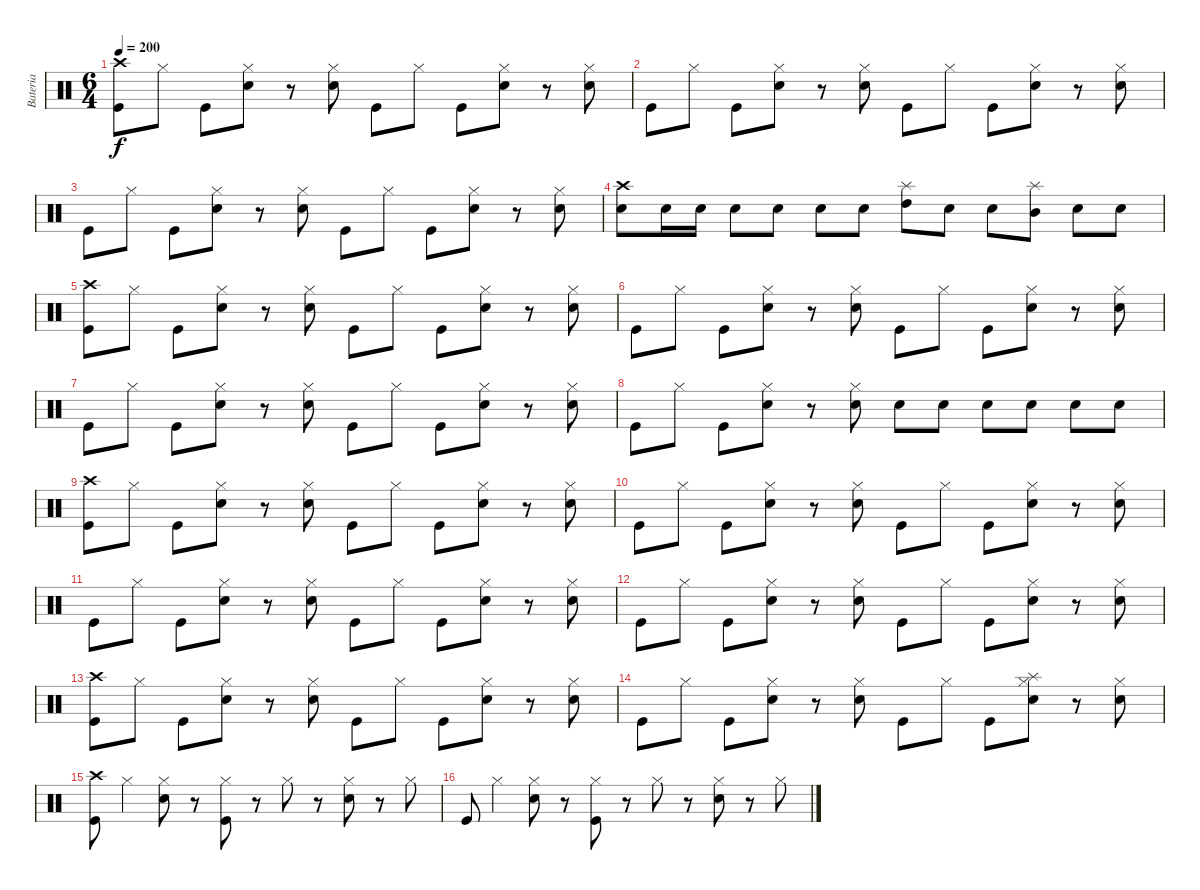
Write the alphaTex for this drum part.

\track ("Bateria" "Bateria") {instrument percussion}
\staff {score}
\articulation defaults
\ts (6 4)
\tempo 200
\clef neutral
\ks c
("Kick (hit)" "Crash high (hit)").8{dy f} "Hi-Hat (closed)".8 "Kick (hit)".8 ("Electric Snare (hit)" "Hi-Hat (closed)").8 r.8 ("Electric Snare (hit)" "Hi-Hat (closed)").8 "Kick (hit)".8 "Hi-Hat (closed)".8 "Kick (hit)".8 ("Electric Snare (hit)" "Hi-Hat (closed)").8 r.8 ("Electric Snare (hit)" "Hi-Hat (closed)").8 |
"Kick (hit)".8 "Hi-Hat (closed)".8 "Kick (hit)".8 ("Electric Snare (hit)" "Hi-Hat (closed)").8 r.8 ("Electric Snare (hit)" "Hi-Hat (closed)").8 "Kick (hit)".8 "Hi-Hat (closed)".8 "Kick (hit)".8 ("Electric Snare (hit)" "Hi-Hat (closed)").8 r.8 ("Electric Snare (hit)" "Hi-Hat (closed)").8 |
"Kick (hit)".8 "Hi-Hat (closed)".8 "Kick (hit)".8 ("Electric Snare (hit)" "Hi-Hat (closed)").8 r.8 ("Electric Snare (hit)" "Hi-Hat (closed)").8 "Kick (hit)".8 "Hi-Hat (closed)".8 "Kick (hit)".8 ("Electric Snare (hit)" "Hi-Hat (closed)").8 r.8 ("Electric Snare (hit)" "Hi-Hat (closed)").8 |
("Electric Snare (hit)" "Crash high (hit)").8 "Electric Snare (hit)".16 "Electric Snare (hit)".16 "Electric Snare (hit)".8 "Electric Snare (hit)".8 "Electric Snare (hit)".8 "Electric Snare (hit)".8 ("High Tom (hit)" "Splash (hit)").8 "Electric Snare (hit)".8 "Electric Snare (hit)".8 ("Mid Tom (hit)" "Splash (hit)").8 "Electric Snare (hit)".8 "Electric Snare (hit)".8 |
("Kick (hit)" "Crash high (hit)").8 "Hi-Hat (closed)".8 "Kick (hit)".8 ("Electric Snare (hit)" "Hi-Hat (closed)").8 r.8 ("Electric Snare (hit)" "Hi-Hat (closed)").8 "Kick (hit)".8 "Hi-Hat (closed)".8 "Kick (hit)".8 ("Electric Snare (hit)" "Hi-Hat (closed)").8 r.8 ("Electric Snare (hit)" "Hi-Hat (closed)").8 |
"Kick (hit)".8 "Hi-Hat (closed)".8 "Kick (hit)".8 ("Electric Snare (hit)" "Hi-Hat (closed)").8 r.8 ("Electric Snare (hit)" "Hi-Hat (closed)").8 "Kick (hit)".8 "Hi-Hat (closed)".8 "Kick (hit)".8 ("Electric Snare (hit)" "Hi-Hat (closed)").8 r.8 ("Electric Snare (hit)" "Hi-Hat (closed)").8 |
"Kick (hit)".8 "Hi-Hat (closed)".8 "Kick (hit)".8 ("Electric Snare (hit)" "Hi-Hat (closed)").8 r.8 ("Electric Snare (hit)" "Hi-Hat (closed)").8 "Kick (hit)".8 "Hi-Hat (closed)".8 "Kick (hit)".8 ("Electric Snare (hit)" "Hi-Hat (closed)").8 r.8 ("Electric Snare (hit)" "Hi-Hat (closed)").8 |
"Kick (hit)".8 "Hi-Hat (closed)".8 "Kick (hit)".8 ("Electric Snare (hit)" "Hi-Hat (closed)").8 r.8 ("Electric Snare (hit)" "Hi-Hat (closed)").8 "Electric Snare (hit)".8 "Electric Snare (hit)".8 "Electric Snare (hit)".8 "Electric Snare (hit)".8 "Electric Snare (hit)".8 "Electric Snare (hit)".8 |
("Kick (hit)" "Crash high (hit)").8 "Hi-Hat (closed)".8 "Kick (hit)".8 ("Electric Snare (hit)" "Hi-Hat (closed)").8 r.8 ("Electric Snare (hit)" "Hi-Hat (closed)").8 "Kick (hit)".8 "Hi-Hat (closed)".8 "Kick (hit)".8 ("Electric Snare (hit)" "Hi-Hat (closed)").8 r.8 ("Electric Snare (hit)" "Hi-Hat (closed)").8 |
"Kick (hit)".8 "Hi-Hat (closed)".8 "Kick (hit)".8 ("Electric Snare (hit)" "Hi-Hat (closed)").8 r.8 ("Electric Snare (hit)" "Hi-Hat (closed)").8 "Kick (hit)".8 "Hi-Hat (closed)".8 "Kick (hit)".8 ("Electric Snare (hit)" "Hi-Hat (closed)").8 r.8 ("Electric Snare (hit)" "Hi-Hat (closed)").8 |
"Kick (hit)".8 "Hi-Hat (closed)".8 "Kick (hit)".8 ("Electric Snare (hit)" "Hi-Hat (closed)").8 r.8 ("Electric Snare (hit)" "Hi-Hat (closed)").8 "Kick (hit)".8 "Hi-Hat (closed)".8 "Kick (hit)".8 ("Electric Snare (hit)" "Hi-Hat (closed)").8 r.8 ("Electric Snare (hit)" "Hi-Hat (closed)").8 |
"Kick (hit)".8 "Hi-Hat (closed)".8 "Kick (hit)".8 ("Electric Snare (hit)" "Hi-Hat (closed)").8 r.8 ("Electric Snare (hit)" "Hi-Hat (closed)").8 "Kick (hit)".8 "Hi-Hat (closed)".8 "Kick (hit)".8 ("Electric Snare (hit)" "Hi-Hat (closed)").8 r.8 ("Electric Snare (hit)" "Hi-Hat (closed)").8 |
("Crash high (hit)" "Kick (hit)").8 "Hi-Hat (closed)".8 "Kick (hit)".8 ("Electric Snare (hit)" "Hi-Hat (closed)").8 r.8 ("Electric Snare (hit)" "Hi-Hat (closed)").8 "Kick (hit)".8 "Hi-Hat (closed)".8 "Kick (hit)".8 ("Electric Snare (hit)" "Hi-Hat (closed)").8 r.8 ("Electric Snare (hit)" "Hi-Hat (closed)").8 |
"Kick (hit)".8 "Hi-Hat (closed)".8 "Kick (hit)".8 ("Electric Snare (hit)" "Hi-Hat (closed)").8 r.8 ("Electric Snare (hit)" "Hi-Hat (closed)").8 "Kick (hit)".8 "Hi-Hat (closed)".8 "Kick (hit)".8 ("Electric Snare (hit)" "Splash (hit)" "Hi-Hat (closed)").8 r.8 ("Electric Snare (hit)" "Hi-Hat (closed)").8 |
("Crash high (hit)" "Kick (hit)").8 "Hi-Hat (closed)".4 ("Hi-Hat (closed)" "Electric Snare (hit)").8 r.8 ("Hi-Hat (closed)" "Kick (hit)").8 r.8 "Hi-Hat (closed)".8 r.8 ("Hi-Hat (closed)" "Electric Snare (hit)").8 r.8 "Hi-Hat (closed)".8 |
"Kick (hit)".8 "Hi-Hat (closed)".4 ("Hi-Hat (closed)" "Electric Snare (hit)").8 r.8 ("Hi-Hat (closed)" "Kick (hit)").8 r.8 "Hi-Hat (closed)".8 r.8 ("Hi-Hat (closed)" "Electric Snare (hit)").8 r.8 "Hi-Hat (closed)".8
